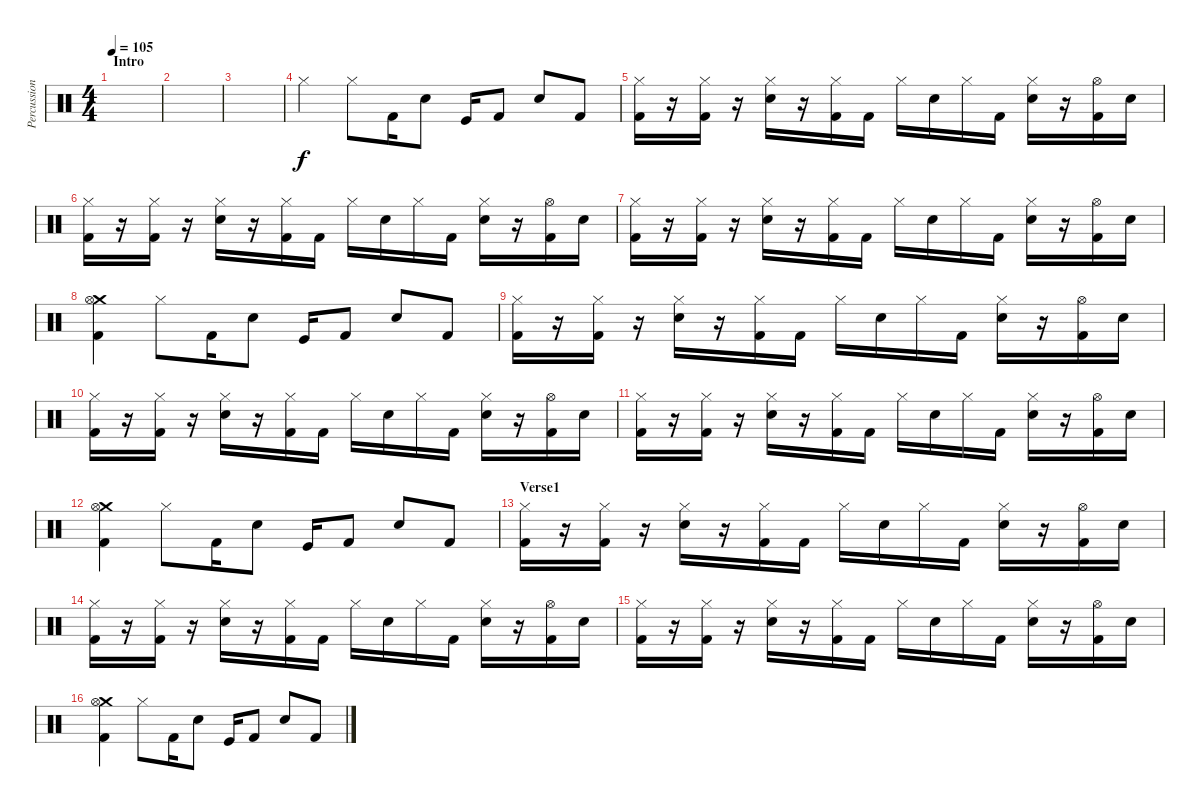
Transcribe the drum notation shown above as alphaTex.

\track ("Percussion" "Percussion") {instrument percussion}
\staff {score}
\articulation defaults
\ts (4 4)
\section ("" "Intro")
\tempo 105
\clef neutral
\ks c
|
|
|
"Hi-Hat (closed)".4 "Hi-Hat (closed)".8 "Kick (hit) 2".16 "Snare (hit) 2".8 "Kick (hit)".16 "Kick (hit) 2".8 "Snare (hit) 2".8 "Kick (hit) 2".8 |
("Hi-Hat (closed)" "Kick (hit) 2").16 r.16 ("Hi-Hat (closed)" "Kick (hit) 2").16 r.16 ("Hi-Hat (closed)" "Electric Snare (hit)").16 r.16 ("Hi-Hat (closed)" "Kick (hit) 2").16 "Kick (hit) 2".16 "Hi-Hat (closed)".16 "Electric Snare (hit)".16 "Hi-Hat (closed)".16 "Kick (hit) 2".16 ("Hi-Hat (closed)" "Electric Snare (hit)").16 r.16 ("Hi-Hat (open)" "Kick (hit) 2").16 "Electric Snare (hit)".16 |
("Hi-Hat (closed)" "Kick (hit) 2").16 r.16 ("Hi-Hat (closed)" "Kick (hit) 2").16 r.16 ("Hi-Hat (closed)" "Electric Snare (hit)").16 r.16 ("Hi-Hat (closed)" "Kick (hit) 2").16 "Kick (hit) 2".16 "Hi-Hat (closed)".16 "Electric Snare (hit)".16 "Hi-Hat (closed)".16 "Kick (hit) 2".16 ("Hi-Hat (closed)" "Electric Snare (hit)").16 r.16 ("Hi-Hat (open)" "Kick (hit) 2").16 "Electric Snare (hit)".16 |
("Hi-Hat (closed)" "Kick (hit) 2").16 r.16 ("Hi-Hat (closed)" "Kick (hit) 2").16 r.16 ("Hi-Hat (closed)" "Electric Snare (hit)").16 r.16 ("Hi-Hat (closed)" "Kick (hit) 2").16 "Kick (hit) 2".16 "Hi-Hat (closed)".16 "Electric Snare (hit)".16 "Hi-Hat (closed)".16 "Kick (hit) 2".16 ("Hi-Hat (closed)" "Electric Snare (hit)").16 r.16 ("Hi-Hat (open)" "Kick (hit) 2").16 "Electric Snare (hit)".16 |
("Crash medium (hit)" "Kick (hit) 2" "Hi-Hat (open)").4 "Hi-Hat (closed)".8 "Kick (hit) 2".16 "Snare (hit) 2".8 "Kick (hit)".16 "Kick (hit) 2".8 "Snare (hit) 2".8 "Kick (hit) 2".8 |
("Hi-Hat (closed)" "Kick (hit) 2").16 r.16 ("Hi-Hat (closed)" "Kick (hit) 2").16 r.16 ("Hi-Hat (closed)" "Electric Snare (hit)").16 r.16 ("Hi-Hat (closed)" "Kick (hit) 2").16 "Kick (hit) 2".16 "Hi-Hat (closed)".16 "Electric Snare (hit)".16 "Hi-Hat (closed)".16 "Kick (hit) 2".16 ("Hi-Hat (closed)" "Electric Snare (hit)").16 r.16 ("Hi-Hat (open)" "Kick (hit) 2").16 "Electric Snare (hit)".16 |
("Hi-Hat (closed)" "Kick (hit) 2").16 r.16 ("Hi-Hat (closed)" "Kick (hit) 2").16 r.16 ("Hi-Hat (closed)" "Electric Snare (hit)").16 r.16 ("Hi-Hat (closed)" "Kick (hit) 2").16 "Kick (hit) 2".16 "Hi-Hat (closed)".16 "Electric Snare (hit)".16 "Hi-Hat (closed)".16 "Kick (hit) 2".16 ("Hi-Hat (closed)" "Electric Snare (hit)").16 r.16 ("Hi-Hat (open)" "Kick (hit) 2").16 "Electric Snare (hit)".16 |
("Hi-Hat (closed)" "Kick (hit) 2").16 r.16 ("Hi-Hat (closed)" "Kick (hit) 2").16 r.16 ("Hi-Hat (closed)" "Electric Snare (hit)").16 r.16 ("Hi-Hat (closed)" "Kick (hit) 2").16 "Kick (hit) 2".16 "Hi-Hat (closed)".16 "Electric Snare (hit)".16 "Hi-Hat (closed)".16 "Kick (hit) 2".16 ("Hi-Hat (closed)" "Electric Snare (hit)").16 r.16 ("Hi-Hat (open)" "Kick (hit) 2").16 "Electric Snare (hit)".16 |
("Crash medium (hit)" "Kick (hit) 2" "Hi-Hat (open)").4 "Hi-Hat (closed)".8 "Kick (hit) 2".16 "Snare (hit) 2".8 "Kick (hit)".16 "Kick (hit) 2".8 "Snare (hit) 2".8 "Kick (hit) 2".8 |
\section ("" "Verse1")
("Hi-Hat (closed)" "Kick (hit) 2").16 r.16 ("Hi-Hat (closed)" "Kick (hit) 2").16 r.16 ("Hi-Hat (closed)" "Electric Snare (hit)").16 r.16 ("Hi-Hat (closed)" "Kick (hit) 2").16 "Kick (hit) 2".16 "Hi-Hat (closed)".16 "Electric Snare (hit)".16 "Hi-Hat (closed)".16 "Kick (hit) 2".16 ("Hi-Hat (closed)" "Electric Snare (hit)").16 r.16 ("Hi-Hat (open)" "Kick (hit) 2").16 "Electric Snare (hit)".16 |
("Hi-Hat (closed)" "Kick (hit) 2").16 r.16 ("Hi-Hat (closed)" "Kick (hit) 2").16 r.16 ("Hi-Hat (closed)" "Electric Snare (hit)").16 r.16 ("Hi-Hat (closed)" "Kick (hit) 2").16 "Kick (hit) 2".16 "Hi-Hat (closed)".16 "Electric Snare (hit)".16 "Hi-Hat (closed)".16 "Kick (hit) 2".16 ("Hi-Hat (closed)" "Electric Snare (hit)").16 r.16 ("Hi-Hat (open)" "Kick (hit) 2").16 "Electric Snare (hit)".16 |
("Hi-Hat (closed)" "Kick (hit) 2").16 r.16 ("Hi-Hat (closed)" "Kick (hit) 2").16 r.16 ("Hi-Hat (closed)" "Electric Snare (hit)").16 r.16 ("Hi-Hat (closed)" "Kick (hit) 2").16 "Kick (hit) 2".16 "Hi-Hat (closed)".16 "Electric Snare (hit)".16 "Hi-Hat (closed)".16 "Kick (hit) 2".16 ("Hi-Hat (closed)" "Electric Snare (hit)").16 r.16 ("Hi-Hat (open)" "Kick (hit) 2").16 "Electric Snare (hit)".16 |
("Crash medium (hit)" "Kick (hit) 2" "Hi-Hat (open)").4 "Hi-Hat (closed)".8 "Kick (hit) 2".16 "Snare (hit) 2".8 "Kick (hit)".16 "Kick (hit) 2".8 "Snare (hit) 2".8 "Kick (hit) 2".8
